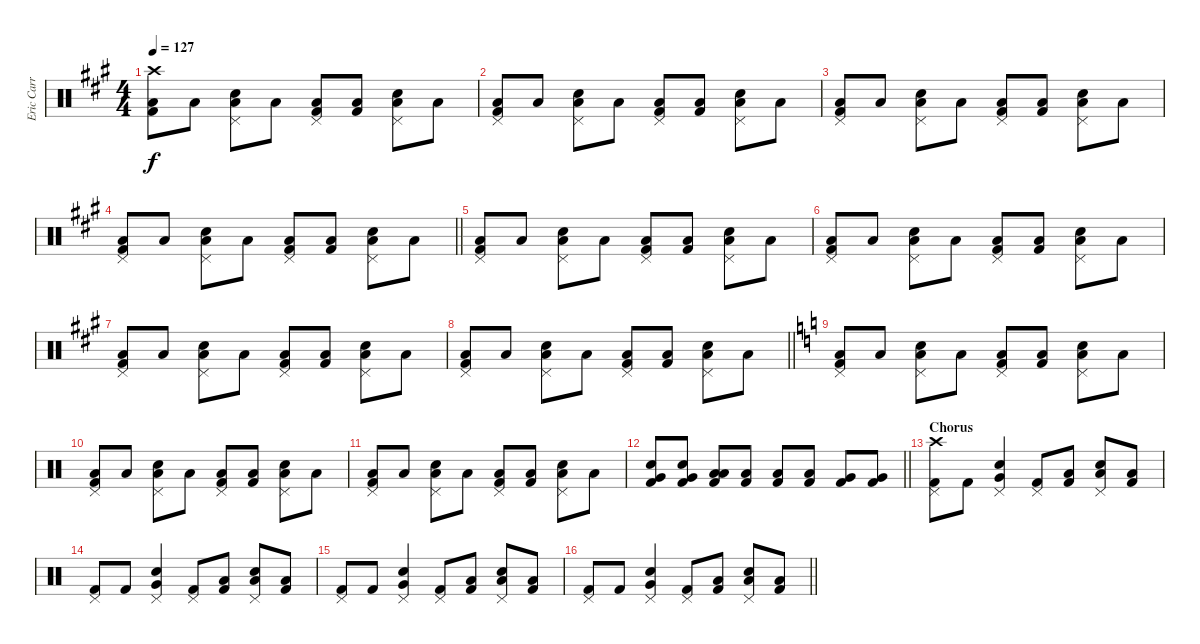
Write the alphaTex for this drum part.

\track ("Eric Carr (Drums)" "Eric Carr ") {instrument percussion}
\staff {score}
\articulation defaults
\ts (4 4)
\tempo 127
\clef neutral
\ks a
("Crash high (hit)" "Low Tom (hit)" "Kick (hit) 2").8{dy f} "Low Tom (hit)".8 ("Pedal Hi-Hat (hit)" "Low Tom (hit)" "Snare (hit) 2").8 "Low Tom (hit)".8 ("Pedal Hi-Hat (hit)" "Low Tom (hit)" "Kick (hit) 2").8 ("Low Tom (hit)" "Kick (hit) 2").8 ("Pedal Hi-Hat (hit)" "Low Tom (hit)" "Snare (hit) 2").8 "Low Tom (hit)".8 |
("Pedal Hi-Hat (hit)" "Low Tom (hit)" "Kick (hit) 2").8 "Low Tom (hit)".8 ("Pedal Hi-Hat (hit)" "Low Tom (hit)" "Snare (hit) 2").8 "Low Tom (hit)".8 ("Pedal Hi-Hat (hit)" "Low Tom (hit)" "Kick (hit) 2").8 ("Low Tom (hit)" "Kick (hit) 2").8 ("Pedal Hi-Hat (hit)" "Low Tom (hit)" "Snare (hit) 2").8 "Low Tom (hit)".8 |
("Pedal Hi-Hat (hit)" "Low Tom (hit)" "Kick (hit) 2").8 "Low Tom (hit)".8 ("Pedal Hi-Hat (hit)" "Low Tom (hit)" "Snare (hit) 2").8 "Low Tom (hit)".8 ("Pedal Hi-Hat (hit)" "Low Tom (hit)" "Kick (hit) 2").8 ("Low Tom (hit)" "Kick (hit) 2").8 ("Pedal Hi-Hat (hit)" "Low Tom (hit)" "Snare (hit) 2").8 "Low Tom (hit)".8 |
\barLineRight lightlight
("Pedal Hi-Hat (hit)" "Low Tom (hit)" "Kick (hit) 2").8 "Low Tom (hit)".8 ("Pedal Hi-Hat (hit)" "Low Tom (hit)" "Snare (hit) 2").8 "Low Tom (hit)".8 ("Pedal Hi-Hat (hit)" "Low Tom (hit)" "Kick (hit) 2").8 ("Low Tom (hit)" "Kick (hit) 2").8 ("Pedal Hi-Hat (hit)" "Low Tom (hit)" "Snare (hit) 2").8 "Low Tom (hit)".8 |
("Pedal Hi-Hat (hit)" "Low Tom (hit)" "Kick (hit) 2").8 "Low Tom (hit)".8 ("Pedal Hi-Hat (hit)" "Low Tom (hit)" "Snare (hit) 2").8 "Low Tom (hit)".8 ("Pedal Hi-Hat (hit)" "Low Tom (hit)" "Kick (hit) 2").8 ("Low Tom (hit)" "Kick (hit) 2").8 ("Pedal Hi-Hat (hit)" "Low Tom (hit)" "Snare (hit) 2").8 "Low Tom (hit)".8 |
("Pedal Hi-Hat (hit)" "Low Tom (hit)" "Kick (hit) 2").8 "Low Tom (hit)".8 ("Pedal Hi-Hat (hit)" "Low Tom (hit)" "Snare (hit) 2").8 "Low Tom (hit)".8 ("Pedal Hi-Hat (hit)" "Low Tom (hit)" "Kick (hit) 2").8 ("Low Tom (hit)" "Kick (hit) 2").8 ("Pedal Hi-Hat (hit)" "Low Tom (hit)" "Snare (hit) 2").8 "Low Tom (hit)".8 |
("Pedal Hi-Hat (hit)" "Low Tom (hit)" "Kick (hit) 2").8 "Low Tom (hit)".8 ("Pedal Hi-Hat (hit)" "Low Tom (hit)" "Snare (hit) 2").8 "Low Tom (hit)".8 ("Pedal Hi-Hat (hit)" "Low Tom (hit)" "Kick (hit) 2").8 ("Low Tom (hit)" "Kick (hit) 2").8 ("Pedal Hi-Hat (hit)" "Low Tom (hit)" "Snare (hit) 2").8 "Low Tom (hit)".8 |
\barLineRight lightlight
("Pedal Hi-Hat (hit)" "Low Tom (hit)" "Kick (hit) 2").8 "Low Tom (hit)".8 ("Pedal Hi-Hat (hit)" "Low Tom (hit)" "Snare (hit) 2").8 "Low Tom (hit)".8 ("Pedal Hi-Hat (hit)" "Low Tom (hit)" "Kick (hit) 2").8 ("Low Tom (hit)" "Kick (hit) 2").8 ("Pedal Hi-Hat (hit)" "Low Tom (hit)" "Snare (hit) 2").8 "Low Tom (hit)".8 |
\ks c
("Pedal Hi-Hat (hit)" "Low Tom (hit)" "Kick (hit) 2").8 "Low Tom (hit)".8 ("Pedal Hi-Hat (hit)" "Low Tom (hit)" "Snare (hit) 2").8 "Low Tom (hit)".8 ("Pedal Hi-Hat (hit)" "Low Tom (hit)" "Kick (hit) 2").8 ("Low Tom (hit)" "Kick (hit) 2").8 ("Pedal Hi-Hat (hit)" "Low Tom (hit)" "Snare (hit) 2").8 "Low Tom (hit)".8 |
("Pedal Hi-Hat (hit)" "Low Tom (hit)" "Kick (hit) 2").8 "Low Tom (hit)".8 ("Pedal Hi-Hat (hit)" "Low Tom (hit)" "Snare (hit) 2").8 "Low Tom (hit)".8 ("Pedal Hi-Hat (hit)" "Low Tom (hit)" "Kick (hit) 2").8 ("Low Tom (hit)" "Kick (hit) 2").8 ("Pedal Hi-Hat (hit)" "Low Tom (hit)" "Snare (hit) 2").8 "Low Tom (hit)".8 |
("Pedal Hi-Hat (hit)" "Low Tom (hit)" "Kick (hit) 2").8 "Low Tom (hit)".8 ("Pedal Hi-Hat (hit)" "Low Tom (hit)" "Snare (hit) 2").8 "Low Tom (hit)".8 ("Pedal Hi-Hat (hit)" "Low Tom (hit)" "Kick (hit) 2").8 ("Low Tom (hit)" "Kick (hit) 2").8 ("Pedal Hi-Hat (hit)" "Low Tom (hit)" "Snare (hit) 2").8 "Low Tom (hit)".8 |
\barLineRight lightlight
("Snare (hit) 2" "Very Low Tom (hit)" "Kick (hit) 2").8 ("Snare (hit) 2" "Very Low Tom (hit)" "Kick (hit) 2").8 ("Low Tom (hit)" "Low Tom (hit)" "Kick (hit) 2").8 ("Low Tom (hit)" "Kick (hit) 2").8 ("Low Floor Tom (hit)" "Kick (hit) 2").8 ("Low Floor Tom (hit)" "Kick (hit) 2").8 ("Very Low Tom (hit)" "Kick (hit) 2").8 ("Very Low Tom (hit)" "Kick (hit) 2").8 |
\section ("" "Chorus")
("Crash high (hit)" "Pedal Hi-Hat (hit)" "Kick (hit) 2").8 "Kick (hit) 2".8 ("Pedal Hi-Hat (hit)" "Very Low Tom (hit)" "Snare (hit) 2").4 ("Pedal Hi-Hat (hit)" "Kick (hit) 2").8 ("Low Tom (hit)" "Kick (hit) 2").8 ("Pedal Hi-Hat (hit)" "Low Floor Tom (hit)" "Snare (hit) 2").8 ("Low Tom (hit)" "Kick (hit) 2").8 |
("Pedal Hi-Hat (hit)" "Kick (hit) 2").8 "Kick (hit) 2".8 ("Pedal Hi-Hat (hit)" "Very Low Tom (hit)" "Snare (hit) 2").4 ("Pedal Hi-Hat (hit)" "Kick (hit) 2").8 ("Low Tom (hit)" "Kick (hit) 2").8 ("Pedal Hi-Hat (hit)" "Low Floor Tom (hit)" "Snare (hit) 2").8 ("Low Tom (hit)" "Kick (hit) 2").8 |
("Pedal Hi-Hat (hit)" "Kick (hit) 2").8 "Kick (hit) 2".8 ("Pedal Hi-Hat (hit)" "Very Low Tom (hit)" "Snare (hit) 2").4 ("Pedal Hi-Hat (hit)" "Kick (hit) 2").8 ("Low Tom (hit)" "Kick (hit) 2").8 ("Pedal Hi-Hat (hit)" "Low Floor Tom (hit)" "Snare (hit) 2").8 ("Low Tom (hit)" "Kick (hit) 2").8 |
\barLineRight lightlight
("Pedal Hi-Hat (hit)" "Kick (hit) 2").8 "Kick (hit) 2".8 ("Pedal Hi-Hat (hit)" "Very Low Tom (hit)" "Snare (hit) 2").4 ("Pedal Hi-Hat (hit)" "Kick (hit) 2").8 ("Low Tom (hit)" "Kick (hit) 2").8 ("Pedal Hi-Hat (hit)" "Low Floor Tom (hit)" "Snare (hit) 2").8 ("Low Tom (hit)" "Kick (hit) 2").8
